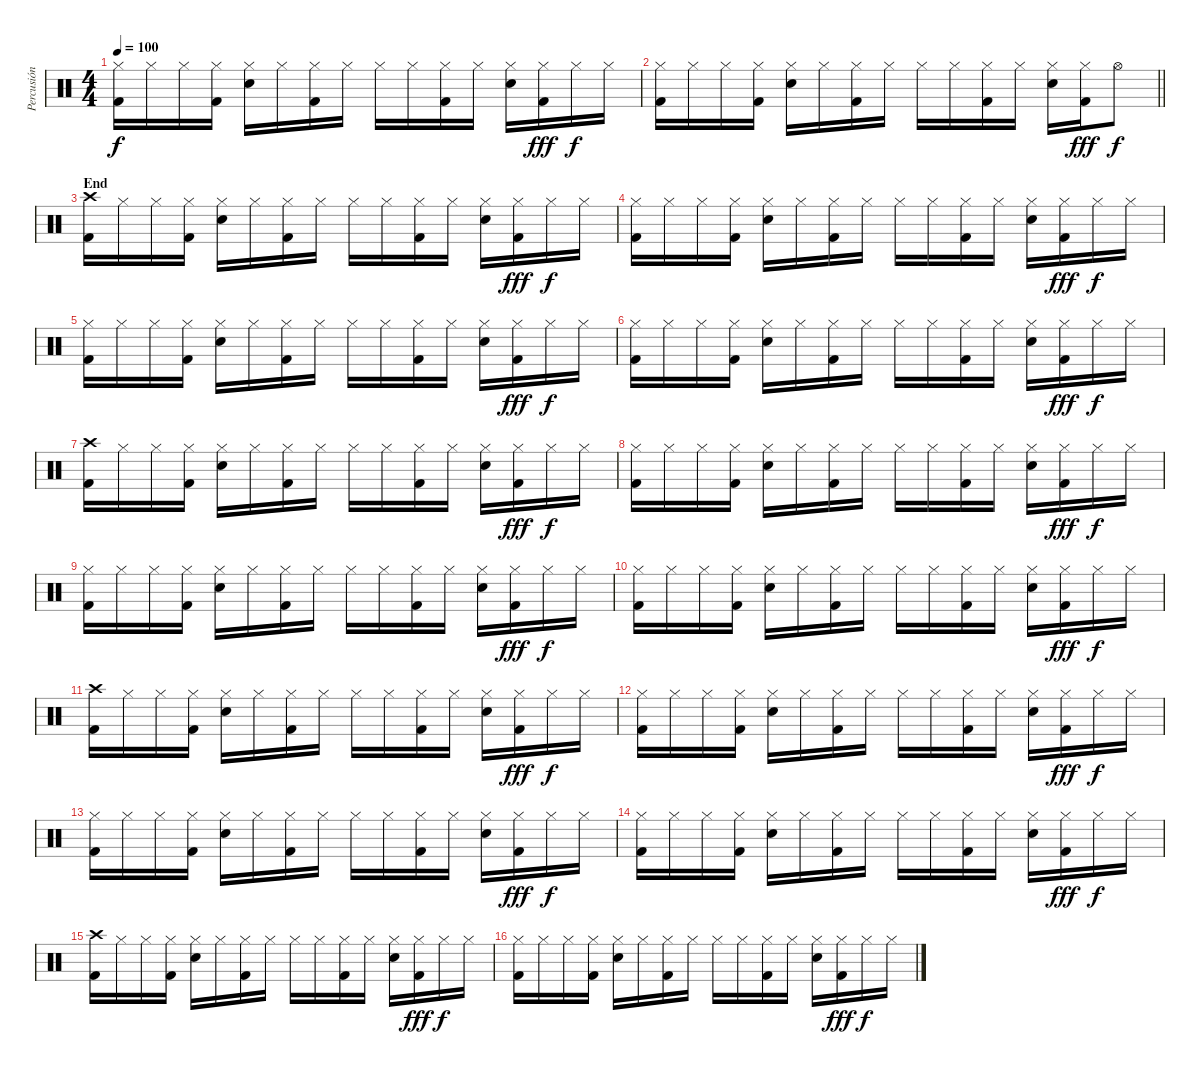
\track ("Percusión" "Percusión") {instrument percussion}
\staff {score}
\articulation defaults
\ts (4 4)
\tempo 100
\clef neutral
\ks c
("Kick (hit) 2" "Hi-Hat (closed)").16{dy f} "Hi-Hat (closed)".16 "Hi-Hat (closed)".16 ("Kick (hit) 2" "Hi-Hat (closed)").16 ("Snare (hit) 2" "Hi-Hat (closed)").16 "Hi-Hat (closed)".16 ("Kick (hit) 2" "Hi-Hat (closed)").16 "Hi-Hat (closed)".16 "Hi-Hat (closed)".16 "Hi-Hat (closed)".16 ("Kick (hit) 2" "Hi-Hat (closed)").16 "Hi-Hat (closed)".16 ("Snare (hit) 2" "Hi-Hat (closed)").16 ("Kick (hit) 2" "Hi-Hat (closed)").16{dy fff} "Hi-Hat (closed)".16{dy f} "Hi-Hat (closed)".16 |
\barLineRight lightlight
("Kick (hit) 2" "Hi-Hat (closed)").16 "Hi-Hat (closed)".16 "Hi-Hat (closed)".16 ("Kick (hit) 2" "Hi-Hat (closed)").16 ("Snare (hit) 2" "Hi-Hat (closed)").16 "Hi-Hat (closed)".16 ("Kick (hit) 2" "Hi-Hat (closed)").16 "Hi-Hat (closed)".16 "Hi-Hat (closed)".16 "Hi-Hat (closed)".16 ("Kick (hit) 2" "Hi-Hat (closed)").16 "Hi-Hat (closed)".16 ("Snare (hit) 2" "Hi-Hat (closed)").16 ("Kick (hit) 2" "Hi-Hat (closed)").16{dy fff} "Hi-Hat (open)".8{dy f} |
\section ("" "End")
("Kick (hit) 2" "Crash high (hit)").16 "Hi-Hat (closed)".16 "Hi-Hat (closed)".16 ("Kick (hit) 2" "Hi-Hat (closed)").16 ("Snare (hit) 2" "Hi-Hat (closed)").16 "Hi-Hat (closed)".16 ("Kick (hit) 2" "Hi-Hat (closed)").16 "Hi-Hat (closed)".16 "Hi-Hat (closed)".16 "Hi-Hat (closed)".16 ("Kick (hit) 2" "Hi-Hat (closed)").16 "Hi-Hat (closed)".16 ("Snare (hit) 2" "Hi-Hat (closed)").16 ("Kick (hit) 2" "Hi-Hat (closed)").16{dy fff} "Hi-Hat (closed)".16{dy f} "Hi-Hat (closed)".16 |
("Kick (hit) 2" "Hi-Hat (closed)").16 "Hi-Hat (closed)".16 "Hi-Hat (closed)".16 ("Kick (hit) 2" "Hi-Hat (closed)").16 ("Snare (hit) 2" "Hi-Hat (closed)").16 "Hi-Hat (closed)".16 ("Kick (hit) 2" "Hi-Hat (closed)").16 "Hi-Hat (closed)".16 "Hi-Hat (closed)".16 "Hi-Hat (closed)".16 ("Kick (hit) 2" "Hi-Hat (closed)").16 "Hi-Hat (closed)".16 ("Snare (hit) 2" "Hi-Hat (closed)").16 ("Kick (hit) 2" "Hi-Hat (closed)").16{dy fff} "Hi-Hat (closed)".16{dy f} "Hi-Hat (closed)".16 |
("Kick (hit) 2" "Hi-Hat (closed)").16 "Hi-Hat (closed)".16 "Hi-Hat (closed)".16 ("Kick (hit) 2" "Hi-Hat (closed)").16 ("Snare (hit) 2" "Hi-Hat (closed)").16 "Hi-Hat (closed)".16 ("Kick (hit) 2" "Hi-Hat (closed)").16 "Hi-Hat (closed)".16 "Hi-Hat (closed)".16 "Hi-Hat (closed)".16 ("Kick (hit) 2" "Hi-Hat (closed)").16 "Hi-Hat (closed)".16 ("Snare (hit) 2" "Hi-Hat (closed)").16 ("Kick (hit) 2" "Hi-Hat (closed)").16{dy fff} "Hi-Hat (closed)".16{dy f} "Hi-Hat (closed)".16 |
("Kick (hit) 2" "Hi-Hat (closed)").16 "Hi-Hat (closed)".16 "Hi-Hat (closed)".16 ("Kick (hit) 2" "Hi-Hat (closed)").16 ("Snare (hit) 2" "Hi-Hat (closed)").16 "Hi-Hat (closed)".16 ("Kick (hit) 2" "Hi-Hat (closed)").16 "Hi-Hat (closed)".16 "Hi-Hat (closed)".16 "Hi-Hat (closed)".16 ("Kick (hit) 2" "Hi-Hat (closed)").16 "Hi-Hat (closed)".16 ("Snare (hit) 2" "Hi-Hat (closed)").16 ("Kick (hit) 2" "Hi-Hat (closed)").16{dy fff} "Hi-Hat (closed)".16{dy f} "Hi-Hat (closed)".16 |
("Kick (hit) 2" "Crash high (hit)").16 "Hi-Hat (closed)".16 "Hi-Hat (closed)".16 ("Kick (hit) 2" "Hi-Hat (closed)").16 ("Snare (hit) 2" "Hi-Hat (closed)").16 "Hi-Hat (closed)".16 ("Kick (hit) 2" "Hi-Hat (closed)").16 "Hi-Hat (closed)".16 "Hi-Hat (closed)".16 "Hi-Hat (closed)".16 ("Kick (hit) 2" "Hi-Hat (closed)").16 "Hi-Hat (closed)".16 ("Snare (hit) 2" "Hi-Hat (closed)").16 ("Kick (hit) 2" "Hi-Hat (closed)").16{dy fff} "Hi-Hat (closed)".16{dy f} "Hi-Hat (closed)".16 |
("Kick (hit) 2" "Hi-Hat (closed)").16 "Hi-Hat (closed)".16 "Hi-Hat (closed)".16 ("Kick (hit) 2" "Hi-Hat (closed)").16 ("Snare (hit) 2" "Hi-Hat (closed)").16 "Hi-Hat (closed)".16 ("Kick (hit) 2" "Hi-Hat (closed)").16 "Hi-Hat (closed)".16 "Hi-Hat (closed)".16 "Hi-Hat (closed)".16 ("Kick (hit) 2" "Hi-Hat (closed)").16 "Hi-Hat (closed)".16 ("Snare (hit) 2" "Hi-Hat (closed)").16 ("Kick (hit) 2" "Hi-Hat (closed)").16{dy fff} "Hi-Hat (closed)".16{dy f} "Hi-Hat (closed)".16 |
("Kick (hit) 2" "Hi-Hat (closed)").16 "Hi-Hat (closed)".16 "Hi-Hat (closed)".16 ("Kick (hit) 2" "Hi-Hat (closed)").16 ("Snare (hit) 2" "Hi-Hat (closed)").16 "Hi-Hat (closed)".16 ("Kick (hit) 2" "Hi-Hat (closed)").16 "Hi-Hat (closed)".16 "Hi-Hat (closed)".16 "Hi-Hat (closed)".16 ("Kick (hit) 2" "Hi-Hat (closed)").16 "Hi-Hat (closed)".16 ("Snare (hit) 2" "Hi-Hat (closed)").16 ("Kick (hit) 2" "Hi-Hat (closed)").16{dy fff} "Hi-Hat (closed)".16{dy f} "Hi-Hat (closed)".16 |
("Kick (hit) 2" "Hi-Hat (closed)").16 "Hi-Hat (closed)".16 "Hi-Hat (closed)".16 ("Kick (hit) 2" "Hi-Hat (closed)").16 ("Snare (hit) 2" "Hi-Hat (closed)").16 "Hi-Hat (closed)".16 ("Kick (hit) 2" "Hi-Hat (closed)").16 "Hi-Hat (closed)".16 "Hi-Hat (closed)".16 "Hi-Hat (closed)".16 ("Kick (hit) 2" "Hi-Hat (closed)").16 "Hi-Hat (closed)".16 ("Snare (hit) 2" "Hi-Hat (closed)").16 ("Kick (hit) 2" "Hi-Hat (closed)").16{dy fff} "Hi-Hat (closed)".16{dy f} "Hi-Hat (closed)".16 |
("Kick (hit) 2" "Crash high (hit)").16 "Hi-Hat (closed)".16 "Hi-Hat (closed)".16 ("Kick (hit) 2" "Hi-Hat (closed)").16 ("Snare (hit) 2" "Hi-Hat (closed)").16 "Hi-Hat (closed)".16 ("Kick (hit) 2" "Hi-Hat (closed)").16 "Hi-Hat (closed)".16 "Hi-Hat (closed)".16 "Hi-Hat (closed)".16 ("Kick (hit) 2" "Hi-Hat (closed)").16 "Hi-Hat (closed)".16 ("Snare (hit) 2" "Hi-Hat (closed)").16 ("Kick (hit) 2" "Hi-Hat (closed)").16{dy fff} "Hi-Hat (closed)".16{dy f} "Hi-Hat (closed)".16 |
("Kick (hit) 2" "Hi-Hat (closed)").16 "Hi-Hat (closed)".16 "Hi-Hat (closed)".16 ("Kick (hit) 2" "Hi-Hat (closed)").16 ("Snare (hit) 2" "Hi-Hat (closed)").16 "Hi-Hat (closed)".16 ("Kick (hit) 2" "Hi-Hat (closed)").16 "Hi-Hat (closed)".16 "Hi-Hat (closed)".16 "Hi-Hat (closed)".16 ("Kick (hit) 2" "Hi-Hat (closed)").16 "Hi-Hat (closed)".16 ("Snare (hit) 2" "Hi-Hat (closed)").16 ("Kick (hit) 2" "Hi-Hat (closed)").16{dy fff} "Hi-Hat (closed)".16{dy f} "Hi-Hat (closed)".16 |
("Kick (hit) 2" "Hi-Hat (closed)").16 "Hi-Hat (closed)".16 "Hi-Hat (closed)".16 ("Kick (hit) 2" "Hi-Hat (closed)").16 ("Snare (hit) 2" "Hi-Hat (closed)").16 "Hi-Hat (closed)".16 ("Kick (hit) 2" "Hi-Hat (closed)").16 "Hi-Hat (closed)".16 "Hi-Hat (closed)".16 "Hi-Hat (closed)".16 ("Kick (hit) 2" "Hi-Hat (closed)").16 "Hi-Hat (closed)".16 ("Snare (hit) 2" "Hi-Hat (closed)").16 ("Kick (hit) 2" "Hi-Hat (closed)").16{dy fff} "Hi-Hat (closed)".16{dy f} "Hi-Hat (closed)".16 |
("Kick (hit) 2" "Hi-Hat (closed)").16 "Hi-Hat (closed)".16 "Hi-Hat (closed)".16 ("Kick (hit) 2" "Hi-Hat (closed)").16 ("Snare (hit) 2" "Hi-Hat (closed)").16 "Hi-Hat (closed)".16 ("Kick (hit) 2" "Hi-Hat (closed)").16 "Hi-Hat (closed)".16 "Hi-Hat (closed)".16 "Hi-Hat (closed)".16 ("Kick (hit) 2" "Hi-Hat (closed)").16 "Hi-Hat (closed)".16 ("Snare (hit) 2" "Hi-Hat (closed)").16 ("Kick (hit) 2" "Hi-Hat (closed)").16{dy fff} "Hi-Hat (closed)".16{dy f} "Hi-Hat (closed)".16 |
("Kick (hit) 2" "Crash high (hit)").16 "Hi-Hat (closed)".16 "Hi-Hat (closed)".16 ("Kick (hit) 2" "Hi-Hat (closed)").16 ("Snare (hit) 2" "Hi-Hat (closed)").16 "Hi-Hat (closed)".16 ("Kick (hit) 2" "Hi-Hat (closed)").16 "Hi-Hat (closed)".16 "Hi-Hat (closed)".16 "Hi-Hat (closed)".16 ("Kick (hit) 2" "Hi-Hat (closed)").16 "Hi-Hat (closed)".16 ("Snare (hit) 2" "Hi-Hat (closed)").16 ("Kick (hit) 2" "Hi-Hat (closed)").16{dy fff} "Hi-Hat (closed)".16{dy f} "Hi-Hat (closed)".16 |
("Kick (hit) 2" "Hi-Hat (closed)").16 "Hi-Hat (closed)".16 "Hi-Hat (closed)".16 ("Kick (hit) 2" "Hi-Hat (closed)").16 ("Snare (hit) 2" "Hi-Hat (closed)").16 "Hi-Hat (closed)".16 ("Kick (hit) 2" "Hi-Hat (closed)").16 "Hi-Hat (closed)".16 "Hi-Hat (closed)".16 "Hi-Hat (closed)".16 ("Kick (hit) 2" "Hi-Hat (closed)").16 "Hi-Hat (closed)".16 ("Snare (hit) 2" "Hi-Hat (closed)").16 ("Kick (hit) 2" "Hi-Hat (closed)").16{dy fff} "Hi-Hat (closed)".16{dy f} "Hi-Hat (closed)".16
